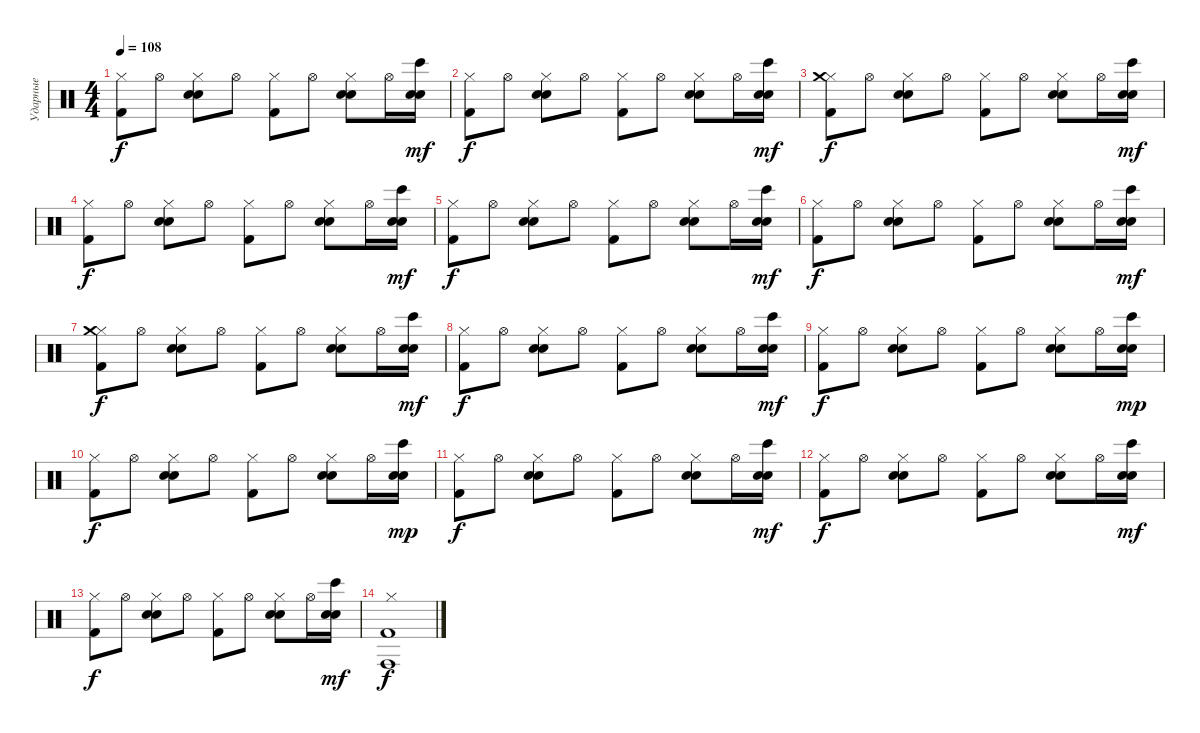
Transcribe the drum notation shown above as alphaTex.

\track ("Ударные" "Ударные") {instrument percussion}
\staff {score}
\articulation defaults
\ts (4 4)
\tempo 108
\clef neutral
\ks c
("Hi-Hat (closed)" "Kick (hit) 2").8{dy f} "Hi-Hat (open)".8 ("Hi-Hat (closed)" "Electric Snare (hit)" "Hand Clap (hit)").8 "Hi-Hat (open)".8 ("Hi-Hat (closed)" "Kick (hit) 2").8 "Hi-Hat (open)".8 ("Hi-Hat (closed)" "Electric Snare (hit)" "Hand Clap (hit)").8 "Hi-Hat (open)".16 ("Bongo High (hit)" "Electric Snare (hit)" "Hand Clap (hit)").16{dy mf} |
("Hi-Hat (closed)" "Kick (hit) 2").8{dy f} "Hi-Hat (open)".8 ("Hi-Hat (closed)" "Electric Snare (hit)" "Hand Clap (hit)").8 "Hi-Hat (open)".8 ("Hi-Hat (closed)" "Kick (hit) 2").8 "Hi-Hat (open)".8 ("Hi-Hat (closed)" "Electric Snare (hit)" "Hand Clap (hit)").8 "Hi-Hat (open)".16 ("Bongo High (hit)" "Electric Snare (hit)" "Hand Clap (hit)").16{dy mf} |
("Hi-Hat (closed)" "Kick (hit) 2" "Crash medium (hit)").8{dy f} "Hi-Hat (open)".8 ("Hi-Hat (closed)" "Electric Snare (hit)" "Hand Clap (hit)").8 "Hi-Hat (open)".8 ("Hi-Hat (closed)" "Kick (hit) 2").8 "Hi-Hat (open)".8 ("Hi-Hat (closed)" "Electric Snare (hit)" "Hand Clap (hit)").8 "Hi-Hat (open)".16 ("Bongo High (hit)" "Electric Snare (hit)" "Hand Clap (hit)").16{dy mf} |
("Hi-Hat (closed)" "Kick (hit) 2").8{dy f} "Hi-Hat (open)".8 ("Hi-Hat (closed)" "Electric Snare (hit)" "Hand Clap (hit)").8 "Hi-Hat (open)".8 ("Hi-Hat (closed)" "Kick (hit) 2").8 "Hi-Hat (open)".8 ("Hi-Hat (closed)" "Electric Snare (hit)" "Hand Clap (hit)").8 "Hi-Hat (open)".16 ("Bongo High (hit)" "Electric Snare (hit)" "Hand Clap (hit)").16{dy mf} |
("Hi-Hat (closed)" "Kick (hit) 2").8{dy f} "Hi-Hat (open)".8 ("Hi-Hat (closed)" "Electric Snare (hit)" "Hand Clap (hit)").8 "Hi-Hat (open)".8 ("Hi-Hat (closed)" "Kick (hit) 2").8 "Hi-Hat (open)".8 ("Hi-Hat (closed)" "Electric Snare (hit)" "Hand Clap (hit)").8 "Hi-Hat (open)".16 ("Bongo High (hit)" "Electric Snare (hit)" "Hand Clap (hit)").16{dy mf} |
("Hi-Hat (closed)" "Kick (hit) 2").8{dy f} "Hi-Hat (open)".8 ("Hi-Hat (closed)" "Electric Snare (hit)" "Hand Clap (hit)").8 "Hi-Hat (open)".8 ("Hi-Hat (closed)" "Kick (hit) 2").8 "Hi-Hat (open)".8 ("Hi-Hat (closed)" "Electric Snare (hit)" "Hand Clap (hit)").8 "Hi-Hat (open)".16 ("Bongo High (hit)" "Electric Snare (hit)" "Hand Clap (hit)").16{dy mf} |
("Hi-Hat (closed)" "Kick (hit) 2" "Crash medium (hit)").8{dy f} "Hi-Hat (open)".8 ("Hi-Hat (closed)" "Electric Snare (hit)" "Hand Clap (hit)").8 "Hi-Hat (open)".8 ("Hi-Hat (closed)" "Kick (hit) 2").8 "Hi-Hat (open)".8 ("Hi-Hat (closed)" "Electric Snare (hit)" "Hand Clap (hit)").8 "Hi-Hat (open)".16 ("Bongo High (hit)" "Electric Snare (hit)" "Hand Clap (hit)").16{dy mf} |
("Hi-Hat (closed)" "Kick (hit) 2").8{dy f} "Hi-Hat (open)".8 ("Hi-Hat (closed)" "Electric Snare (hit)" "Hand Clap (hit)").8 "Hi-Hat (open)".8 ("Hi-Hat (closed)" "Kick (hit) 2").8 "Hi-Hat (open)".8 ("Hi-Hat (closed)" "Electric Snare (hit)" "Hand Clap (hit)").8 "Hi-Hat (open)".16 ("Bongo High (hit)" "Electric Snare (hit)" "Hand Clap (hit)").16{dy mf} |
("Hi-Hat (closed)" "Kick (hit) 2").8{dy f} "Hi-Hat (open)".8 ("Hi-Hat (closed)" "Electric Snare (hit)" "Hand Clap (hit)").8 "Hi-Hat (open)".8 ("Hi-Hat (closed)" "Kick (hit) 2").8 "Hi-Hat (open)".8 ("Hi-Hat (closed)" "Electric Snare (hit)" "Hand Clap (hit)").8 "Hi-Hat (open)".16 ("Bongo High (hit)" "Electric Snare (hit)" "Hand Clap (hit)").16{dy mp} |
("Hi-Hat (closed)" "Kick (hit) 2").8{dy f} "Hi-Hat (open)".8 ("Hi-Hat (closed)" "Electric Snare (hit)" "Hand Clap (hit)").8 "Hi-Hat (open)".8 ("Hi-Hat (closed)" "Kick (hit) 2").8 "Hi-Hat (open)".8 ("Hi-Hat (closed)" "Electric Snare (hit)" "Hand Clap (hit)").8 "Hi-Hat (open)".16 ("Bongo High (hit)" "Electric Snare (hit)" "Hand Clap (hit)").16{dy mp} |
("Hi-Hat (closed)" "Kick (hit) 2").8{dy f} "Hi-Hat (open)".8 ("Hi-Hat (closed)" "Electric Snare (hit)" "Hand Clap (hit)").8 "Hi-Hat (open)".8 ("Hi-Hat (closed)" "Kick (hit) 2").8 "Hi-Hat (open)".8 ("Hi-Hat (closed)" "Electric Snare (hit)" "Hand Clap (hit)").8 "Hi-Hat (open)".16 ("Bongo High (hit)" "Electric Snare (hit)" "Hand Clap (hit)").16{dy mf} |
("Hi-Hat (closed)" "Kick (hit) 2").8{dy f} "Hi-Hat (open)".8 ("Hi-Hat (closed)" "Electric Snare (hit)" "Hand Clap (hit)").8 "Hi-Hat (open)".8 ("Hi-Hat (closed)" "Kick (hit) 2").8 "Hi-Hat (open)".8 ("Hi-Hat (closed)" "Electric Snare (hit)" "Hand Clap (hit)").8 "Hi-Hat (open)".16 ("Bongo High (hit)" "Electric Snare (hit)" "Hand Clap (hit)").16{dy mf} |
("Hi-Hat (closed)" "Kick (hit) 2").8{dy f} "Hi-Hat (open)".8 ("Hi-Hat (closed)" "Electric Snare (hit)" "Hand Clap (hit)").8 "Hi-Hat (open)".8 ("Hi-Hat (closed)" "Kick (hit) 2").8 "Hi-Hat (open)".8 ("Hi-Hat (closed)" "Electric Snare (hit)" "Hand Clap (hit)").8 "Hi-Hat (open)".16 ("Bongo High (hit)" "Electric Snare (hit)" "Hand Clap (hit)").16{dy mf} |
("Hi-Hat (closed)" "Kick (hit) 2" "Conga high (hit)").1{dy f}
